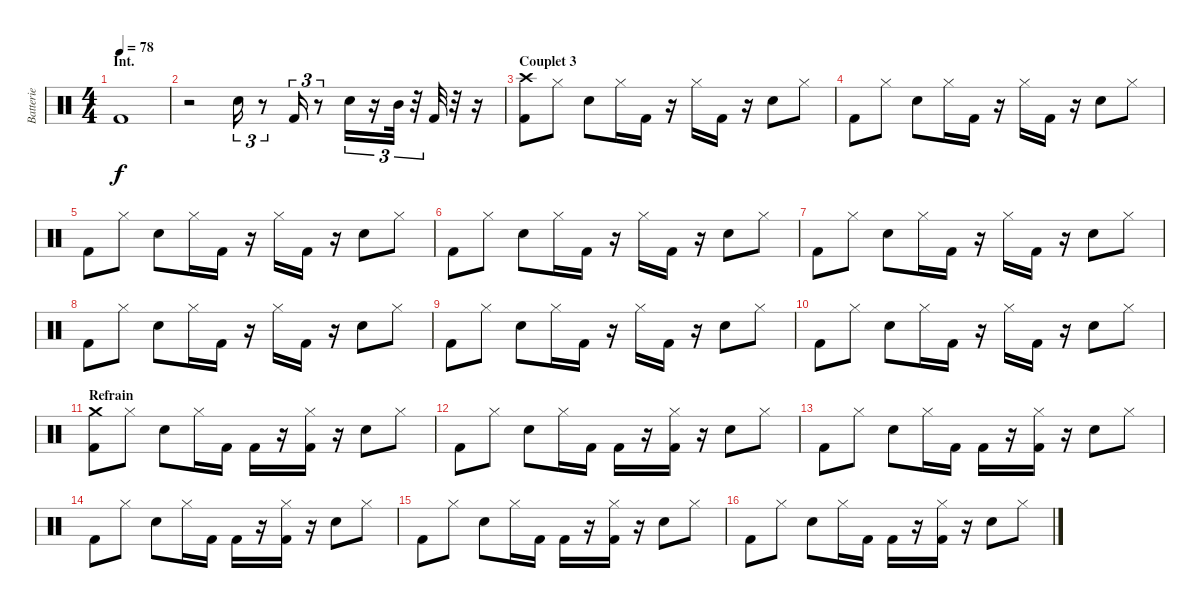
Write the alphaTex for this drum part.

\track ("Batterie" "Batterie") {instrument percussion}
\staff {score}
\articulation defaults
\ts (4 4)
\section ("" "Int.")
\tempo 78
\clef neutral
\ks c "Kick (hit) 2".1{dy f}
|
r.2 "Electric Snare (hit)".16{tu (3 2)} r.8{tu (3 2)} "Kick (hit) 2".16{tu (3 2)} r.8{tu (3 2)} "Electric Snare (hit)".16{tu (3 2)} r.16{tu (3 2)} "Mid Tom (hit)".32{tu (3 2)} r.32{tu (3 2)} "Kick (hit) 2".32 r.32 r.16 |
\section ("" "Couplet 3")
("Crash high (hit)" "Kick (hit) 2").8 "Hi-Hat (closed)".8 "Electric Snare (hit)".8 "Hi-Hat (closed)".16 "Kick (hit) 2".16 r.16 "Hi-Hat (closed)".16 "Kick (hit) 2".16 r.16 "Electric Snare (hit)".8 "Hi-Hat (closed)".8 |
"Kick (hit) 2".8 "Hi-Hat (closed)".8 "Electric Snare (hit)".8 "Hi-Hat (closed)".16 "Kick (hit) 2".16 r.16 "Hi-Hat (closed)".16 "Kick (hit) 2".16 r.16 "Electric Snare (hit)".8 "Hi-Hat (closed)".8 |
"Kick (hit) 2".8 "Hi-Hat (closed)".8 "Electric Snare (hit)".8 "Hi-Hat (closed)".16 "Kick (hit) 2".16 r.16 "Hi-Hat (closed)".16 "Kick (hit) 2".16 r.16 "Electric Snare (hit)".8 "Hi-Hat (closed)".8 |
"Kick (hit) 2".8 "Hi-Hat (closed)".8 "Electric Snare (hit)".8 "Hi-Hat (closed)".16 "Kick (hit) 2".16 r.16 "Hi-Hat (closed)".16 "Kick (hit) 2".16 r.16 "Electric Snare (hit)".8 "Hi-Hat (closed)".8 |
"Kick (hit) 2".8 "Hi-Hat (closed)".8 "Electric Snare (hit)".8 "Hi-Hat (closed)".16 "Kick (hit) 2".16 r.16 "Hi-Hat (closed)".16 "Kick (hit) 2".16 r.16 "Electric Snare (hit)".8 "Hi-Hat (closed)".8 |
"Kick (hit) 2".8 "Hi-Hat (closed)".8 "Electric Snare (hit)".8 "Hi-Hat (closed)".16 "Kick (hit) 2".16 r.16 "Hi-Hat (closed)".16 "Kick (hit) 2".16 r.16 "Electric Snare (hit)".8 "Hi-Hat (closed)".8 |
"Kick (hit) 2".8 "Hi-Hat (closed)".8 "Electric Snare (hit)".8 "Hi-Hat (closed)".16 "Kick (hit) 2".16 r.16 "Hi-Hat (closed)".16 "Kick (hit) 2".16 r.16 "Electric Snare (hit)".8 "Hi-Hat (closed)".8 |
"Kick (hit) 2".8 "Hi-Hat (closed)".8 "Electric Snare (hit)".8 "Hi-Hat (closed)".16 "Kick (hit) 2".16 r.16 "Hi-Hat (closed)".16 "Kick (hit) 2".16 r.16 "Electric Snare (hit)".8 "Hi-Hat (closed)".8 |
\section ("" "Refrain")
("Crash medium (hit)" "Kick (hit) 2").8 "Hi-Hat (closed)".8 "Electric Snare (hit)".8 "Hi-Hat (closed)".16 "Kick (hit) 2".16 "Kick (hit) 2".16 r.16 ("Hi-Hat (closed)" "Kick (hit) 2").16 r.16 "Electric Snare (hit)".8 "Hi-Hat (closed)".8 |
"Kick (hit) 2".8 "Hi-Hat (closed)".8 "Electric Snare (hit)".8 "Hi-Hat (closed)".16 "Kick (hit) 2".16 "Kick (hit) 2".16 r.16 ("Hi-Hat (closed)" "Kick (hit) 2").16 r.16 "Electric Snare (hit)".8 "Hi-Hat (closed)".8 |
"Kick (hit) 2".8 "Hi-Hat (closed)".8 "Electric Snare (hit)".8 "Hi-Hat (closed)".16 "Kick (hit) 2".16 "Kick (hit) 2".16 r.16 ("Hi-Hat (closed)" "Kick (hit) 2").16 r.16 "Electric Snare (hit)".8 "Hi-Hat (closed)".8 |
"Kick (hit) 2".8 "Hi-Hat (closed)".8 "Electric Snare (hit)".8 "Hi-Hat (closed)".16 "Kick (hit) 2".16 "Kick (hit) 2".16 r.16 ("Hi-Hat (closed)" "Kick (hit) 2").16 r.16 "Electric Snare (hit)".8 "Hi-Hat (closed)".8 |
"Kick (hit) 2".8 "Hi-Hat (closed)".8 "Electric Snare (hit)".8 "Hi-Hat (closed)".16 "Kick (hit) 2".16 "Kick (hit) 2".16 r.16 ("Hi-Hat (closed)" "Kick (hit) 2").16 r.16 "Electric Snare (hit)".8 "Hi-Hat (closed)".8 |
"Kick (hit) 2".8 "Hi-Hat (closed)".8 "Electric Snare (hit)".8 "Hi-Hat (closed)".16 "Kick (hit) 2".16 "Kick (hit) 2".16 r.16 ("Hi-Hat (closed)" "Kick (hit) 2").16 r.16 "Electric Snare (hit)".8 "Hi-Hat (closed)".8
